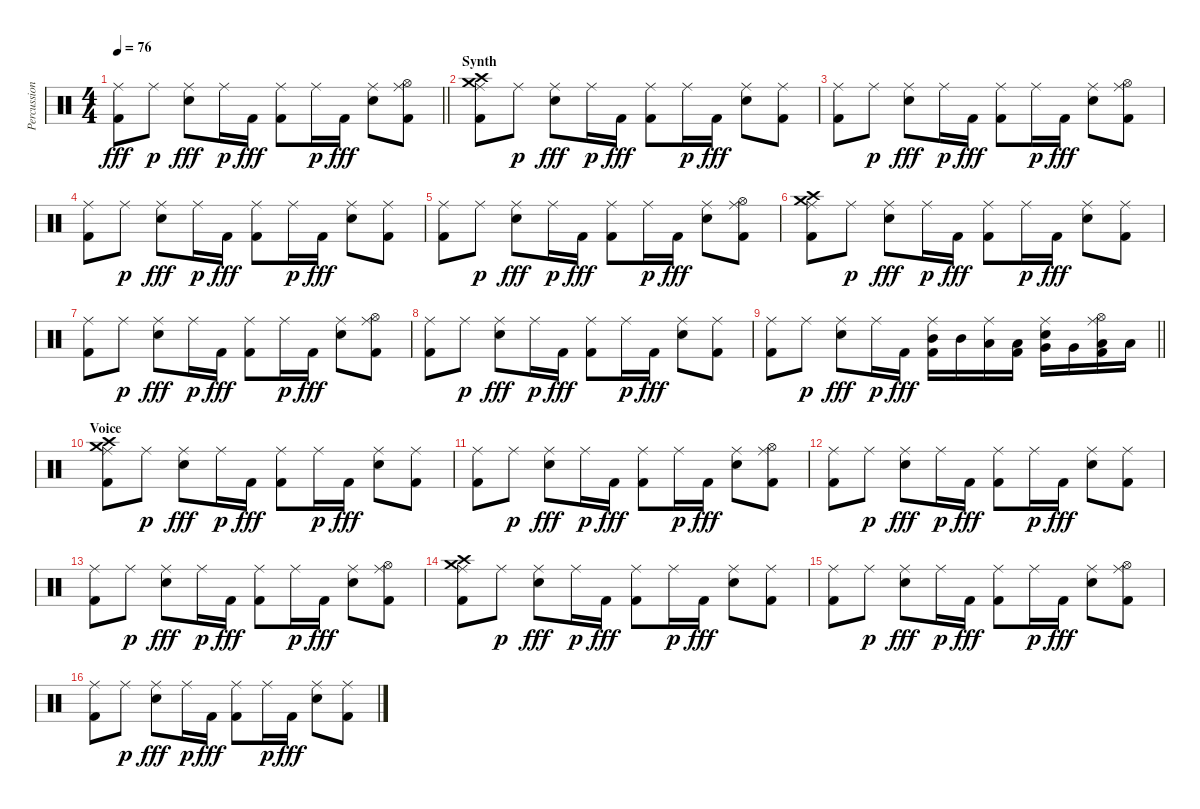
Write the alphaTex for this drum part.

\track ("Percussions" "Percussion") {instrument percussion}
\staff {score}
\articulation defaults
\ts (4 4)
\tempo 76
\clef neutral
\barLineRight lightlight
\ks c
("Ride (middle)" "Kick (hit) 2").8{dy fff} "Ride (middle)".8{dy p} ("Ride (middle)" "Electric Snare (hit)").8{dy fff} "Ride (middle)".16{dy p} "Kick (hit) 2".16{dy fff} ("Ride (middle)" "Kick (hit) 2").8 "Ride (middle)".16{dy p} "Kick (hit) 2".16{dy fff} ("Ride (middle)" "Electric Snare (hit)").8 ("Ride (middle)" "Hi-Hat (open)" "Kick (hit) 2").8 |
\section ("" "Synth")
("Ride (middle)" "Crash medium (hit)" "Crash high (hit)" "Kick (hit) 2").8 "Ride (middle)".8{dy p} ("Ride (middle)" "Electric Snare (hit)").8{dy fff} "Ride (middle)".16{dy p} "Kick (hit) 2".16{dy fff} ("Ride (middle)" "Kick (hit) 2").8 "Ride (middle)".16{dy p} "Kick (hit) 2".16{dy fff} ("Ride (middle)" "Electric Snare (hit)").8 ("Ride (middle)" "Kick (hit) 2").8 |
("Ride (middle)" "Kick (hit) 2").8 "Ride (middle)".8{dy p} ("Ride (middle)" "Electric Snare (hit)").8{dy fff} "Ride (middle)".16{dy p} "Kick (hit) 2".16{dy fff} ("Ride (middle)" "Kick (hit) 2").8 "Ride (middle)".16{dy p} "Kick (hit) 2".16{dy fff} ("Ride (middle)" "Electric Snare (hit)").8 ("Ride (middle)" "Hi-Hat (open)" "Kick (hit) 2").8 |
("Ride (middle)" "Kick (hit) 2").8 "Ride (middle)".8{dy p} ("Ride (middle)" "Electric Snare (hit)").8{dy fff} "Ride (middle)".16{dy p} "Kick (hit) 2".16{dy fff} ("Ride (middle)" "Kick (hit) 2").8 "Ride (middle)".16{dy p} "Kick (hit) 2".16{dy fff} ("Ride (middle)" "Electric Snare (hit)").8 ("Ride (middle)" "Kick (hit) 2").8 |
("Ride (middle)" "Kick (hit) 2").8 "Ride (middle)".8{dy p} ("Ride (middle)" "Electric Snare (hit)").8{dy fff} "Ride (middle)".16{dy p} "Kick (hit) 2".16{dy fff} ("Ride (middle)" "Kick (hit) 2").8 "Ride (middle)".16{dy p} "Kick (hit) 2".16{dy fff} ("Ride (middle)" "Electric Snare (hit)").8 ("Ride (middle)" "Hi-Hat (open)" "Kick (hit) 2").8 |
("Ride (middle)" "Crash medium (hit)" "Crash high (hit)" "Kick (hit) 2").8 "Ride (middle)".8{dy p} ("Ride (middle)" "Electric Snare (hit)").8{dy fff} "Ride (middle)".16{dy p} "Kick (hit) 2".16{dy fff} ("Ride (middle)" "Kick (hit) 2").8 "Ride (middle)".16{dy p} "Kick (hit) 2".16{dy fff} ("Ride (middle)" "Electric Snare (hit)").8 ("Ride (middle)" "Kick (hit) 2").8 |
("Ride (middle)" "Kick (hit) 2").8 "Ride (middle)".8{dy p} ("Ride (middle)" "Electric Snare (hit)").8{dy fff} "Ride (middle)".16{dy p} "Kick (hit) 2".16{dy fff} ("Ride (middle)" "Kick (hit) 2").8 "Ride (middle)".16{dy p} "Kick (hit) 2".16{dy fff} ("Ride (middle)" "Electric Snare (hit)").8 ("Ride (middle)" "Hi-Hat (open)" "Kick (hit) 2").8 |
("Ride (middle)" "Kick (hit) 2").8 "Ride (middle)".8{dy p} ("Ride (middle)" "Electric Snare (hit)").8{dy fff} "Ride (middle)".16{dy p} "Kick (hit) 2".16{dy fff} ("Ride (middle)" "Kick (hit) 2").8 "Ride (middle)".16{dy p} "Kick (hit) 2".16{dy fff} ("Ride (middle)" "Electric Snare (hit)").8 ("Ride (middle)" "Kick (hit) 2").8 |
\barLineRight lightlight
("Ride (middle)" "Kick (hit) 2").8 "Ride (middle)".8{dy p} ("Ride (middle)" "Electric Snare (hit)").8{dy fff} "Ride (middle)".16{dy p} "Kick (hit) 2".16{dy fff} ("Ride (middle)" "Mid Tom (hit)" "Kick (hit) 2").16 "Mid Tom (hit)".16 ("Ride (middle)" "Low Tom (hit)").16 ("Low Tom (hit)" "Kick (hit) 2").16 ("Ride (middle)" "Electric Snare (hit)" "Very Low Tom (hit)").16 "Very Low Tom (hit)".16 ("Ride (middle)" "Hi-Hat (open)" "Low Floor Tom (hit)" "Kick (hit) 2").16 "Low Floor Tom (hit)".16 |
\section ("" "Voice")
("Ride (middle)" "Crash medium (hit)" "Crash high (hit)" "Kick (hit) 2").8 "Ride (middle)".8{dy p} ("Ride (middle)" "Electric Snare (hit)").8{dy fff} "Ride (middle)".16{dy p} "Kick (hit) 2".16{dy fff} ("Ride (middle)" "Kick (hit) 2").8 "Ride (middle)".16{dy p} "Kick (hit) 2".16{dy fff} ("Ride (middle)" "Electric Snare (hit)").8 ("Ride (middle)" "Kick (hit) 2").8 |
("Ride (middle)" "Kick (hit) 2").8 "Ride (middle)".8{dy p} ("Ride (middle)" "Electric Snare (hit)").8{dy fff} "Ride (middle)".16{dy p} "Kick (hit) 2".16{dy fff} ("Ride (middle)" "Kick (hit) 2").8 "Ride (middle)".16{dy p} "Kick (hit) 2".16{dy fff} ("Ride (middle)" "Electric Snare (hit)").8 ("Ride (middle)" "Hi-Hat (open)" "Kick (hit) 2").8 |
("Ride (middle)" "Kick (hit) 2").8 "Ride (middle)".8{dy p} ("Ride (middle)" "Electric Snare (hit)").8{dy fff} "Ride (middle)".16{dy p} "Kick (hit) 2".16{dy fff} ("Ride (middle)" "Kick (hit) 2").8 "Ride (middle)".16{dy p} "Kick (hit) 2".16{dy fff} ("Ride (middle)" "Electric Snare (hit)").8 ("Ride (middle)" "Kick (hit) 2").8 |
("Ride (middle)" "Kick (hit) 2").8 "Ride (middle)".8{dy p} ("Ride (middle)" "Electric Snare (hit)").8{dy fff} "Ride (middle)".16{dy p} "Kick (hit) 2".16{dy fff} ("Ride (middle)" "Kick (hit) 2").8 "Ride (middle)".16{dy p} "Kick (hit) 2".16{dy fff} ("Ride (middle)" "Electric Snare (hit)").8 ("Ride (middle)" "Hi-Hat (open)" "Kick (hit) 2").8 |
("Ride (middle)" "Crash medium (hit)" "Crash high (hit)" "Kick (hit) 2").8 "Ride (middle)".8{dy p} ("Ride (middle)" "Electric Snare (hit)").8{dy fff} "Ride (middle)".16{dy p} "Kick (hit) 2".16{dy fff} ("Ride (middle)" "Kick (hit) 2").8 "Ride (middle)".16{dy p} "Kick (hit) 2".16{dy fff} ("Ride (middle)" "Electric Snare (hit)").8 ("Ride (middle)" "Kick (hit) 2").8 |
("Ride (middle)" "Kick (hit) 2").8 "Ride (middle)".8{dy p} ("Ride (middle)" "Electric Snare (hit)").8{dy fff} "Ride (middle)".16{dy p} "Kick (hit) 2".16{dy fff} ("Ride (middle)" "Kick (hit) 2").8 "Ride (middle)".16{dy p} "Kick (hit) 2".16{dy fff} ("Ride (middle)" "Electric Snare (hit)").8 ("Ride (middle)" "Hi-Hat (open)" "Kick (hit) 2").8 |
("Ride (middle)" "Kick (hit) 2").8 "Ride (middle)".8{dy p} ("Ride (middle)" "Electric Snare (hit)").8{dy fff} "Ride (middle)".16{dy p} "Kick (hit) 2".16{dy fff} ("Ride (middle)" "Kick (hit) 2").8 "Ride (middle)".16{dy p} "Kick (hit) 2".16{dy fff} ("Ride (middle)" "Electric Snare (hit)").8 ("Ride (middle)" "Kick (hit) 2").8
